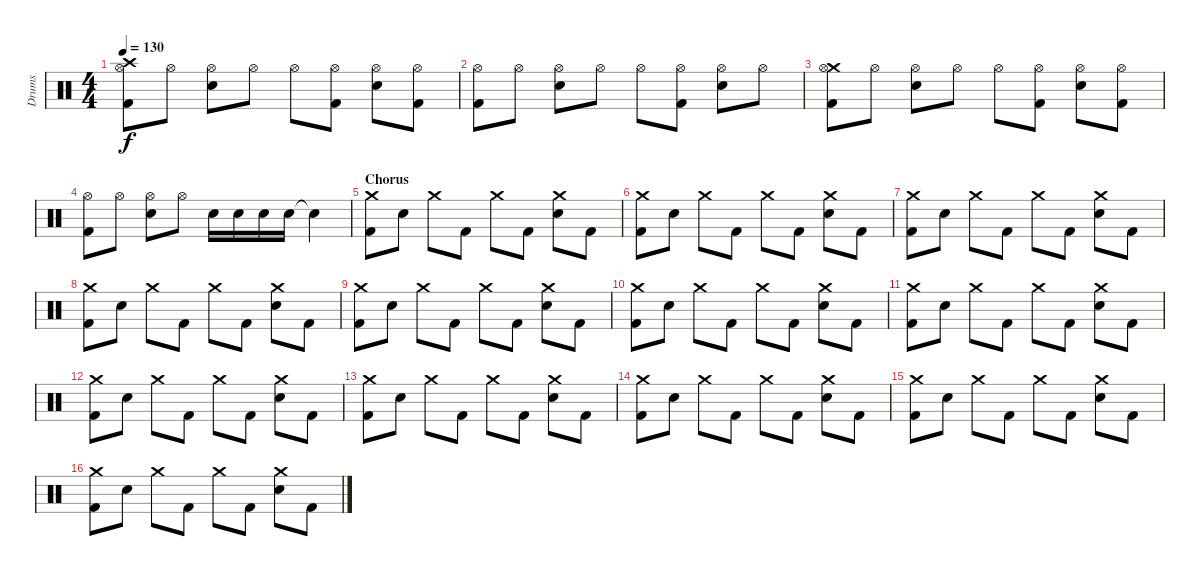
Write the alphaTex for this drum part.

\track ("Drums" "Drums") {instrument percussion}
\staff {score}
\articulation defaults
\ts (4 4)
\tempo 130
\clef neutral
\ks c
("Crash high (hit)" "Hi-Hat (open)" "Kick (hit) 2").8{dy f} "Hi-Hat (open)".8 ("Hi-Hat (open)" "Electric Snare (hit)").8 "Hi-Hat (open)".8 "Hi-Hat (open)".8 ("Hi-Hat (open)" "Kick (hit) 2").8 ("Hi-Hat (open)" "Electric Snare (hit)").8 ("Hi-Hat (open)" "Kick (hit) 2").8 |
("Hi-Hat (open)" "Kick (hit) 2").8 "Hi-Hat (open)".8 ("Hi-Hat (open)" "Electric Snare (hit)").8 "Hi-Hat (open)".8 "Hi-Hat (open)".8 ("Hi-Hat (open)" "Kick (hit) 2").8 ("Hi-Hat (open)" "Electric Snare (hit)").8 "Hi-Hat (open)".8 |
("Crash medium (hit)" "Hi-Hat (open)" "Kick (hit) 2").8 "Hi-Hat (open)".8 ("Hi-Hat (open)" "Electric Snare (hit)").8 "Hi-Hat (open)".8 "Hi-Hat (open)".8 ("Hi-Hat (open)" "Kick (hit) 2").8 ("Hi-Hat (open)" "Electric Snare (hit)").8 ("Hi-Hat (open)" "Kick (hit) 2").8 |
("Hi-Hat (open)" "Kick (hit) 2").8 "Hi-Hat (open)".8 ("Hi-Hat (open)" "Electric Snare (hit)").8 "Hi-Hat (open)".8 "Electric Snare (hit)".16 "Electric Snare (hit)".16 "Electric Snare (hit)".16 "Electric Snare (hit)".16 "Snare (hit)"{t}.4 |
\section ("" "Chorus")
("Crash medium (hit)" "Kick (hit) 2").8 "Electric Snare (hit)".8 "Crash medium (hit)".8 "Kick (hit) 2".8 "Crash medium (hit)".8 "Kick (hit) 2".8 ("Crash medium (hit)" "Electric Snare (hit)").8 "Kick (hit) 2".8 |
("Crash medium (hit)" "Kick (hit) 2").8 "Electric Snare (hit)".8 "Crash medium (hit)".8 "Kick (hit) 2".8 "Crash medium (hit)".8 "Kick (hit) 2".8 ("Crash medium (hit)" "Electric Snare (hit)").8 "Kick (hit) 2".8 |
("Crash medium (hit)" "Kick (hit) 2").8 "Electric Snare (hit)".8 "Crash medium (hit)".8 "Kick (hit) 2".8 "Crash medium (hit)".8 "Kick (hit) 2".8 ("Crash medium (hit)" "Electric Snare (hit)").8 "Kick (hit) 2".8 |
("Crash medium (hit)" "Kick (hit) 2").8 "Electric Snare (hit)".8 "Crash medium (hit)".8 "Kick (hit) 2".8 "Crash medium (hit)".8 "Kick (hit) 2".8 ("Crash medium (hit)" "Electric Snare (hit)").8 "Kick (hit) 2".8 |
("Crash medium (hit)" "Kick (hit) 2").8 "Electric Snare (hit)".8 "Crash medium (hit)".8 "Kick (hit) 2".8 "Crash medium (hit)".8 "Kick (hit) 2".8 ("Crash medium (hit)" "Electric Snare (hit)").8 "Kick (hit) 2".8 |
("Crash medium (hit)" "Kick (hit) 2").8 "Electric Snare (hit)".8 "Crash medium (hit)".8 "Kick (hit) 2".8 "Crash medium (hit)".8 "Kick (hit) 2".8 ("Crash medium (hit)" "Electric Snare (hit)").8 "Kick (hit) 2".8 |
("Crash medium (hit)" "Kick (hit) 2").8 "Electric Snare (hit)".8 "Crash medium (hit)".8 "Kick (hit) 2".8 "Crash medium (hit)".8 "Kick (hit) 2".8 ("Crash medium (hit)" "Electric Snare (hit)").8 "Kick (hit) 2".8 |
("Crash medium (hit)" "Kick (hit) 2").8 "Electric Snare (hit)".8 "Crash medium (hit)".8 "Kick (hit) 2".8 "Crash medium (hit)".8 "Kick (hit) 2".8 ("Crash medium (hit)" "Electric Snare (hit)").8 "Kick (hit) 2".8 |
("Crash medium (hit)" "Kick (hit) 2").8 "Electric Snare (hit)".8 "Crash medium (hit)".8 "Kick (hit) 2".8 "Crash medium (hit)".8 "Kick (hit) 2".8 ("Crash medium (hit)" "Electric Snare (hit)").8 "Kick (hit) 2".8 |
("Crash medium (hit)" "Kick (hit) 2").8 "Electric Snare (hit)".8 "Crash medium (hit)".8 "Kick (hit) 2".8 "Crash medium (hit)".8 "Kick (hit) 2".8 ("Crash medium (hit)" "Electric Snare (hit)").8 "Kick (hit) 2".8 |
("Crash medium (hit)" "Kick (hit) 2").8 "Electric Snare (hit)".8 "Crash medium (hit)".8 "Kick (hit) 2".8 "Crash medium (hit)".8 "Kick (hit) 2".8 ("Crash medium (hit)" "Electric Snare (hit)").8 "Kick (hit) 2".8 |
("Crash medium (hit)" "Kick (hit) 2").8 "Electric Snare (hit)".8 "Crash medium (hit)".8 "Kick (hit) 2".8 "Crash medium (hit)".8 "Kick (hit) 2".8 ("Crash medium (hit)" "Electric Snare (hit)").8 "Kick (hit) 2".8
